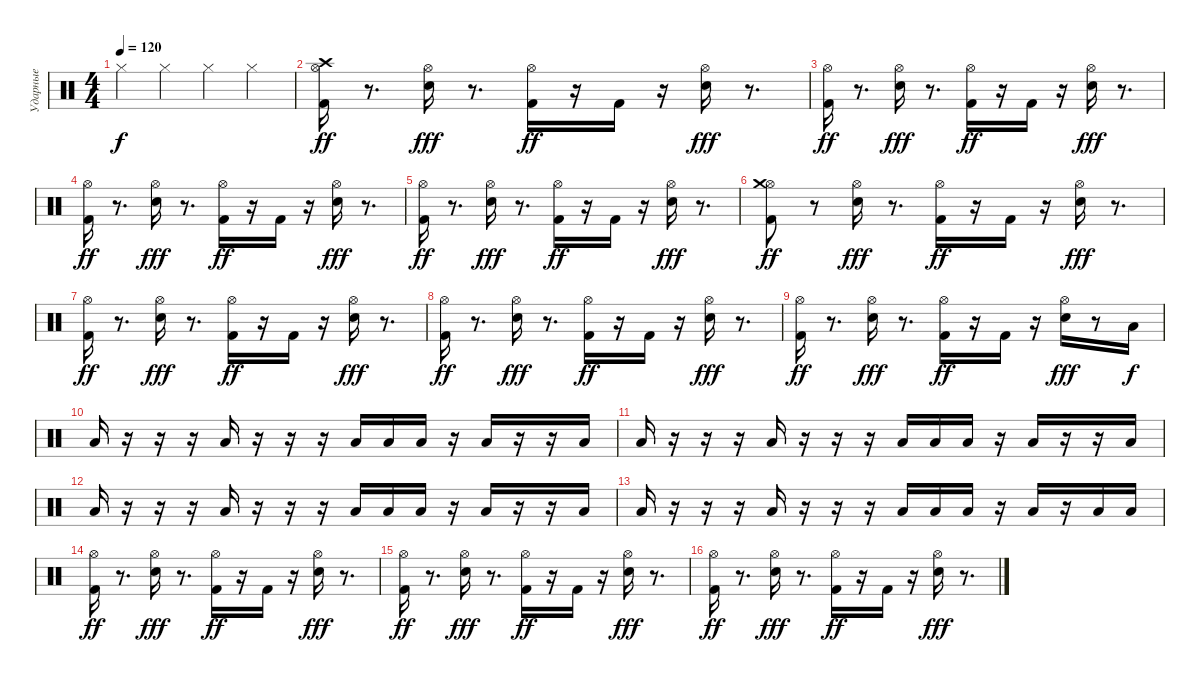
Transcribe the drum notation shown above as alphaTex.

\track ("Ударные" "Ударные") {instrument percussion}
\staff {score}
\articulation defaults
\ts (4 4)
\tempo 120
\clef neutral
\ks c "Hi-Hat (closed)".4{dy f} "Hi-Hat (closed)".4 "Hi-Hat (closed)".4 "Hi-Hat (closed)".4
|
("Kick (hit) 2" "Hi-Hat (open)" "Crash high (hit)").16{dy ff} r.8{d} ("Snare (hit) 2" "Hi-Hat (open)").16{dy fff} r.8{d} ("Kick (hit) 2" "Hi-Hat (open)").16{dy ff} r.16 "Kick (hit) 2".16 r.16 ("Snare (hit) 2" "Hi-Hat (open)").16{dy fff} r.8{d} |
("Kick (hit) 2" "Hi-Hat (open)").16{dy ff} r.8{d} ("Snare (hit) 2" "Hi-Hat (open)").16{dy fff} r.8{d} ("Kick (hit) 2" "Hi-Hat (open)").16{dy ff} r.16 "Kick (hit) 2".16 r.16 ("Snare (hit) 2" "Hi-Hat (open)").16{dy fff} r.8{d} |
("Kick (hit) 2" "Hi-Hat (open)").16{dy ff} r.8{d} ("Snare (hit) 2" "Hi-Hat (open)").16{dy fff} r.8{d} ("Kick (hit) 2" "Hi-Hat (open)").16{dy ff} r.16 "Kick (hit) 2".16 r.16 ("Snare (hit) 2" "Hi-Hat (open)").16{dy fff} r.8{d} |
("Kick (hit) 2" "Hi-Hat (open)").16{dy ff} r.8{d} ("Snare (hit) 2" "Hi-Hat (open)").16{dy fff} r.8{d} ("Kick (hit) 2" "Hi-Hat (open)").16{dy ff} r.16 "Kick (hit) 2".16 r.16 ("Snare (hit) 2" "Hi-Hat (open)").16{dy fff} r.8{d} |
("Kick (hit) 2" "Hi-Hat (open)" "Crash medium (hit)").8{dy ff} r.8 ("Snare (hit) 2" "Hi-Hat (open)").16{dy fff} r.8{d} ("Kick (hit) 2" "Hi-Hat (open)").16{dy ff} r.16 "Kick (hit) 2".16 r.16 ("Snare (hit) 2" "Hi-Hat (open)").16{dy fff} r.8{d} |
("Kick (hit) 2" "Hi-Hat (open)").16{dy ff} r.8{d} ("Snare (hit) 2" "Hi-Hat (open)").16{dy fff} r.8{d} ("Kick (hit) 2" "Hi-Hat (open)").16{dy ff} r.16 "Kick (hit) 2".16 r.16 ("Snare (hit) 2" "Hi-Hat (open)").16{dy fff} r.8{d} |
("Kick (hit) 2" "Hi-Hat (open)").16{dy ff} r.8{d} ("Snare (hit) 2" "Hi-Hat (open)").16{dy fff} r.8{d} ("Kick (hit) 2" "Hi-Hat (open)").16{dy ff} r.16 "Kick (hit) 2".16 r.16 ("Snare (hit) 2" "Hi-Hat (open)").16{dy fff} r.8{d} |
("Kick (hit) 2" "Hi-Hat (open)").16{dy ff} r.8{d} ("Snare (hit) 2" "Hi-Hat (open)").16{dy fff} r.8{d} ("Kick (hit) 2" "Hi-Hat (open)").16{dy ff} r.16 "Kick (hit) 2".16 r.16 ("Snare (hit) 2" "Hi-Hat (open)").16{dy fff} r.8 "Low Floor Tom (hit)".16{dy f} |
"Low Floor Tom (hit)".16 r.16 r.16 r.16 "Low Floor Tom (hit)".16 r.16 r.16 r.16 "Low Floor Tom (hit)".16 "Low Floor Tom (hit)".16 "Low Floor Tom (hit)".16 r.16 "Low Floor Tom (hit)".16 r.16 r.16 "Low Floor Tom (hit)".16 |
"Low Floor Tom (hit)".16 r.16 r.16 r.16 "Low Floor Tom (hit)".16 r.16 r.16 r.16 "Low Floor Tom (hit)".16 "Low Floor Tom (hit)".16 "Low Floor Tom (hit)".16 r.16 "Low Floor Tom (hit)".16 r.16 r.16 "Low Floor Tom (hit)".16 |
"Low Floor Tom (hit)".16 r.16 r.16 r.16 "Low Floor Tom (hit)".16 r.16 r.16 r.16 "Low Floor Tom (hit)".16 "Low Floor Tom (hit)".16 "Low Floor Tom (hit)".16 r.16 "Low Floor Tom (hit)".16 r.16 r.16 "Low Floor Tom (hit)".16 |
"Low Floor Tom (hit)".16 r.16 r.16 r.16 "Low Floor Tom (hit)".16 r.16 r.16 r.16 "Low Floor Tom (hit)".16 "Low Floor Tom (hit)".16 "Low Floor Tom (hit)".16 r.16 "Low Floor Tom (hit)".16 r.16 "Low Floor Tom (hit)".16 "Low Floor Tom (hit)".16 |
("Kick (hit) 2" "Hi-Hat (open)").16{dy ff} r.8{d} ("Snare (hit) 2" "Hi-Hat (open)").16{dy fff} r.8{d} ("Kick (hit) 2" "Hi-Hat (open)").16{dy ff} r.16 "Kick (hit) 2".16 r.16 ("Snare (hit) 2" "Hi-Hat (open)").16{dy fff} r.8{d} |
("Kick (hit) 2" "Hi-Hat (open)").16{dy ff} r.8{d} ("Snare (hit) 2" "Hi-Hat (open)").16{dy fff} r.8{d} ("Kick (hit) 2" "Hi-Hat (open)").16{dy ff} r.16 "Kick (hit) 2".16 r.16 ("Snare (hit) 2" "Hi-Hat (open)").16{dy fff} r.8{d} |
("Kick (hit) 2" "Hi-Hat (open)").16{dy ff} r.8{d} ("Snare (hit) 2" "Hi-Hat (open)").16{dy fff} r.8{d} ("Kick (hit) 2" "Hi-Hat (open)").16{dy ff} r.16 "Kick (hit) 2".16 r.16 ("Snare (hit) 2" "Hi-Hat (open)").16{dy fff} r.8{d}
